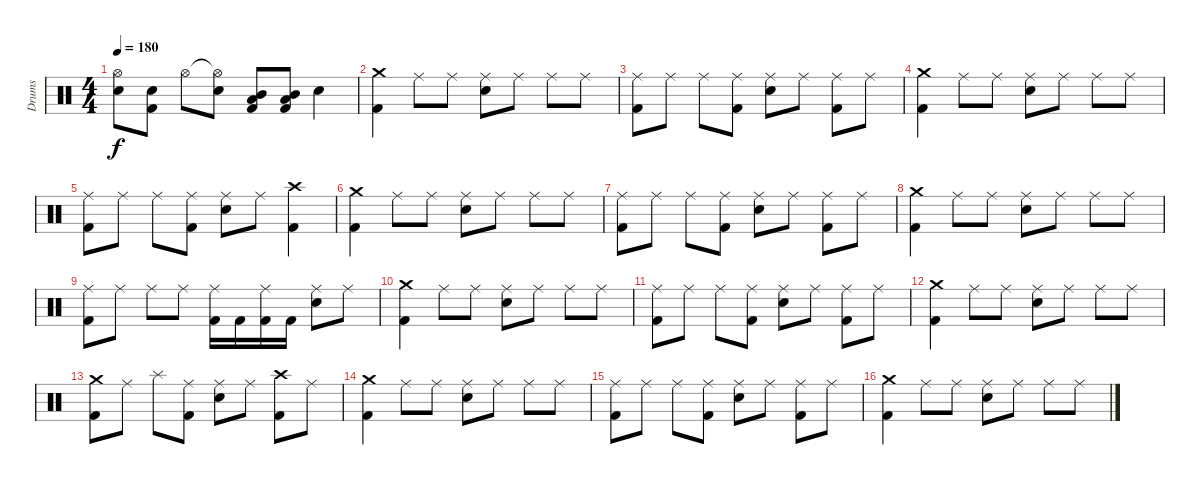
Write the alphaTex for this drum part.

\track ("Drums" "Drums") {instrument percussion}
\staff {score}
\articulation defaults
\ts (4 4)
\tempo 180
\clef neutral
\ks c
("Hi-Hat (open)" "Electric Snare (hit)").8{dy f} ("Electric Snare (hit)" "Kick (hit) 2").8 "Hi-Hat (open)".8 ("Hi-Hat (open)"{t} "Electric Snare (hit)").8 ("Low Tom (hit)" "Mid Tom (hit)" "Kick (hit) 2").8 ("Low Tom (hit)" "Mid Tom (hit)" "Kick (hit) 2").8 "Electric Snare (hit)".4 |
("Crash medium (hit)" "Kick (hit) 2").4 "Ride (middle)".8 "Ride (middle)".8 ("Ride (middle)" "Electric Snare (hit)").8 "Ride (middle)".8 "Ride (middle)".8 "Ride (middle)".8 |
("Ride (middle)" "Kick (hit) 2").8 "Ride (middle)".8 "Ride (middle)".8 ("Ride (middle)" "Kick (hit) 2").8 ("Ride (middle)" "Electric Snare (hit)").8 "Ride (middle)".8 ("Ride (middle)" "Kick (hit) 2").8 "Ride (middle)".8 |
("Crash medium (hit)" "Kick (hit) 2").4 "Ride (middle)".8 "Ride (middle)".8 ("Ride (middle)" "Electric Snare (hit)").8 "Ride (middle)".8 "Ride (middle)".8 "Ride (middle)".8 |
("Ride (middle)" "Kick (hit) 2").8 "Ride (middle)".8 "Ride (middle)".8 ("Ride (middle)" "Kick (hit) 2").8 ("Ride (middle)" "Electric Snare (hit)").8 "Ride (middle)".8 ("Crash high (hit)" "Kick (hit) 2").4 |
("Crash medium (hit)" "Kick (hit) 2").4 "Ride (middle)".8 "Ride (middle)".8 ("Ride (middle)" "Electric Snare (hit)").8 "Ride (middle)".8 "Ride (middle)".8 "Ride (middle)".8 |
("Ride (middle)" "Kick (hit) 2").8 "Ride (middle)".8 "Ride (middle)".8 ("Ride (middle)" "Kick (hit) 2").8 ("Ride (middle)" "Electric Snare (hit)").8 "Ride (middle)".8 ("Ride (middle)" "Kick (hit) 2").8 "Ride (middle)".8 |
("Crash medium (hit)" "Kick (hit) 2").4 "Ride (middle)".8 "Ride (middle)".8 ("Ride (middle)" "Electric Snare (hit)").8 "Ride (middle)".8 "Ride (middle)".8 "Ride (middle)".8 |
("Ride (middle)" "Kick (hit) 2").8 "Ride (middle)".8 "Ride (middle)".8 "Ride (middle)".8 ("Ride (middle)" "Kick (hit) 2").16 "Kick (hit) 2".16 ("Ride (middle)" "Kick (hit) 2").16 "Kick (hit) 2".16 ("Ride (middle)" "Electric Snare (hit)").8 "Ride (middle)".8 |
("Crash medium (hit)" "Kick (hit) 2").4 "Ride (middle)".8 "Ride (middle)".8 ("Ride (middle)" "Electric Snare (hit)").8 "Ride (middle)".8 "Ride (middle)".8 "Ride (middle)".8 |
("Ride (middle)" "Kick (hit) 2").8 "Ride (middle)".8 "Ride (middle)".8 ("Ride (middle)" "Kick (hit) 2").8 ("Ride (middle)" "Electric Snare (hit)").8 "Ride (middle)".8 ("Ride (middle)" "Kick (hit) 2").8 "Ride (middle)".8 |
("Crash medium (hit)" "Kick (hit) 2").4 "Ride (middle)".8 "Ride (middle)".8 ("Ride (middle)" "Electric Snare (hit)").8 "Ride (middle)".8 "Ride (middle)".8 "Ride (middle)".8 |
("Crash medium (hit)" "Kick (hit) 2").8 "Ride (middle)".8 "Splash (hit)".8 ("Ride (middle)" "Kick (hit) 2").8 ("Ride (middle)" "Electric Snare (hit)").8 "Ride (middle)".8 ("Crash high (hit)" "Kick (hit) 2").8 "Ride (middle)".8 |
("Crash medium (hit)" "Kick (hit) 2").4 "Ride (middle)".8 "Ride (middle)".8 ("Ride (middle)" "Electric Snare (hit)").8 "Ride (middle)".8 "Ride (middle)".8 "Ride (middle)".8 |
("Ride (middle)" "Kick (hit) 2").8 "Ride (middle)".8 "Ride (middle)".8 ("Ride (middle)" "Kick (hit) 2").8 ("Ride (middle)" "Electric Snare (hit)").8 "Ride (middle)".8 ("Ride (middle)" "Kick (hit) 2").8 "Ride (middle)".8 |
("Crash medium (hit)" "Kick (hit) 2").4 "Ride (middle)".8 "Ride (middle)".8 ("Ride (middle)" "Electric Snare (hit)").8 "Ride (middle)".8 "Ride (middle)".8 "Ride (middle)".8
